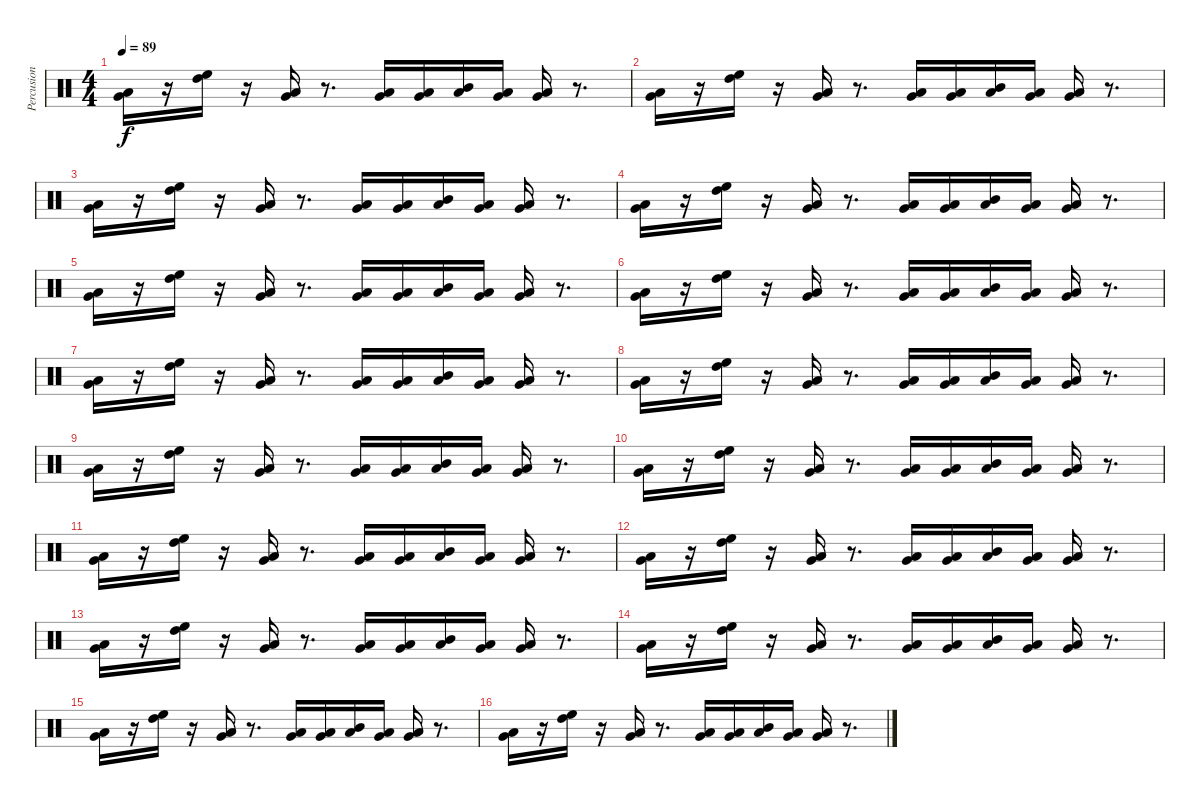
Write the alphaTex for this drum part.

\track ("Percusion" "Percusion") {instrument percussion}
\staff {score}
\articulation defaults
\ts (4 4)
\tempo 89
\clef neutral
\ks c
("Very Low Tom (hit)" "Low Floor Tom (hit)").16{dy f} r.16 ("High Floor Tom (hit)" "High Tom (hit)").16 r.16 ("Very Low Tom (hit)" "Low Floor Tom (hit)").16 r.8{d} ("Very Low Tom (hit)" "Low Floor Tom (hit)").16 ("Very Low Tom (hit)" "Low Floor Tom (hit)").16 ("Mid Tom (hit)" "Low Floor Tom (hit)").16 ("Very Low Tom (hit)" "Low Floor Tom (hit)").16 ("Very Low Tom (hit)" "Low Floor Tom (hit)").16 r.8{d} |
("Very Low Tom (hit)" "Low Floor Tom (hit)").16 r.16 ("High Floor Tom (hit)" "High Tom (hit)").16 r.16 ("Very Low Tom (hit)" "Low Floor Tom (hit)").16 r.8{d} ("Very Low Tom (hit)" "Low Floor Tom (hit)").16 ("Very Low Tom (hit)" "Low Floor Tom (hit)").16 ("Mid Tom (hit)" "Low Floor Tom (hit)").16 ("Very Low Tom (hit)" "Low Floor Tom (hit)").16 ("Very Low Tom (hit)" "Low Floor Tom (hit)").16 r.8{d} |
("Very Low Tom (hit)" "Low Floor Tom (hit)").16 r.16 ("High Floor Tom (hit)" "High Tom (hit)").16 r.16 ("Very Low Tom (hit)" "Low Floor Tom (hit)").16 r.8{d} ("Very Low Tom (hit)" "Low Floor Tom (hit)").16 ("Very Low Tom (hit)" "Low Floor Tom (hit)").16 ("Mid Tom (hit)" "Low Floor Tom (hit)").16 ("Very Low Tom (hit)" "Low Floor Tom (hit)").16 ("Very Low Tom (hit)" "Low Floor Tom (hit)").16 r.8{d} |
("Very Low Tom (hit)" "Low Floor Tom (hit)").16 r.16 ("High Floor Tom (hit)" "High Tom (hit)").16 r.16 ("Very Low Tom (hit)" "Low Floor Tom (hit)").16 r.8{d} ("Very Low Tom (hit)" "Low Floor Tom (hit)").16 ("Very Low Tom (hit)" "Low Floor Tom (hit)").16 ("Mid Tom (hit)" "Low Floor Tom (hit)").16 ("Very Low Tom (hit)" "Low Floor Tom (hit)").16 ("Very Low Tom (hit)" "Low Floor Tom (hit)").16 r.8{d} |
("Very Low Tom (hit)" "Low Floor Tom (hit)").16 r.16 ("High Floor Tom (hit)" "High Tom (hit)").16 r.16 ("Very Low Tom (hit)" "Low Floor Tom (hit)").16 r.8{d} ("Very Low Tom (hit)" "Low Floor Tom (hit)").16 ("Very Low Tom (hit)" "Low Floor Tom (hit)").16 ("Mid Tom (hit)" "Low Floor Tom (hit)").16 ("Very Low Tom (hit)" "Low Floor Tom (hit)").16 ("Very Low Tom (hit)" "Low Floor Tom (hit)").16 r.8{d} |
("Very Low Tom (hit)" "Low Floor Tom (hit)").16 r.16 ("High Floor Tom (hit)" "High Tom (hit)").16 r.16 ("Very Low Tom (hit)" "Low Floor Tom (hit)").16 r.8{d} ("Very Low Tom (hit)" "Low Floor Tom (hit)").16 ("Very Low Tom (hit)" "Low Floor Tom (hit)").16 ("Mid Tom (hit)" "Low Floor Tom (hit)").16 ("Very Low Tom (hit)" "Low Floor Tom (hit)").16 ("Very Low Tom (hit)" "Low Floor Tom (hit)").16 r.8{d} |
("Very Low Tom (hit)" "Low Floor Tom (hit)").16 r.16 ("High Floor Tom (hit)" "High Tom (hit)").16 r.16 ("Very Low Tom (hit)" "Low Floor Tom (hit)").16 r.8{d} ("Very Low Tom (hit)" "Low Floor Tom (hit)").16 ("Very Low Tom (hit)" "Low Floor Tom (hit)").16 ("Mid Tom (hit)" "Low Floor Tom (hit)").16 ("Very Low Tom (hit)" "Low Floor Tom (hit)").16 ("Very Low Tom (hit)" "Low Floor Tom (hit)").16 r.8{d} |
("Very Low Tom (hit)" "Low Floor Tom (hit)").16 r.16 ("High Floor Tom (hit)" "High Tom (hit)").16 r.16 ("Very Low Tom (hit)" "Low Floor Tom (hit)").16 r.8{d} ("Very Low Tom (hit)" "Low Floor Tom (hit)").16 ("Very Low Tom (hit)" "Low Floor Tom (hit)").16 ("Mid Tom (hit)" "Low Floor Tom (hit)").16 ("Very Low Tom (hit)" "Low Floor Tom (hit)").16 ("Very Low Tom (hit)" "Low Floor Tom (hit)").16 r.8{d} |
("Very Low Tom (hit)" "Low Floor Tom (hit)").16 r.16 ("High Floor Tom (hit)" "High Tom (hit)").16 r.16 ("Very Low Tom (hit)" "Low Floor Tom (hit)").16 r.8{d} ("Very Low Tom (hit)" "Low Floor Tom (hit)").16 ("Very Low Tom (hit)" "Low Floor Tom (hit)").16 ("Mid Tom (hit)" "Low Floor Tom (hit)").16 ("Very Low Tom (hit)" "Low Floor Tom (hit)").16 ("Very Low Tom (hit)" "Low Floor Tom (hit)").16 r.8{d} |
("Very Low Tom (hit)" "Low Floor Tom (hit)").16 r.16 ("High Floor Tom (hit)" "High Tom (hit)").16 r.16 ("Very Low Tom (hit)" "Low Floor Tom (hit)").16 r.8{d} ("Very Low Tom (hit)" "Low Floor Tom (hit)").16 ("Very Low Tom (hit)" "Low Floor Tom (hit)").16 ("Mid Tom (hit)" "Low Floor Tom (hit)").16 ("Very Low Tom (hit)" "Low Floor Tom (hit)").16 ("Very Low Tom (hit)" "Low Floor Tom (hit)").16 r.8{d} |
("Very Low Tom (hit)" "Low Floor Tom (hit)").16 r.16 ("High Floor Tom (hit)" "High Tom (hit)").16 r.16 ("Very Low Tom (hit)" "Low Floor Tom (hit)").16 r.8{d} ("Very Low Tom (hit)" "Low Floor Tom (hit)").16 ("Very Low Tom (hit)" "Low Floor Tom (hit)").16 ("Mid Tom (hit)" "Low Floor Tom (hit)").16 ("Very Low Tom (hit)" "Low Floor Tom (hit)").16 ("Very Low Tom (hit)" "Low Floor Tom (hit)").16 r.8{d} |
("Very Low Tom (hit)" "Low Floor Tom (hit)").16 r.16 ("High Floor Tom (hit)" "High Tom (hit)").16 r.16 ("Very Low Tom (hit)" "Low Floor Tom (hit)").16 r.8{d} ("Very Low Tom (hit)" "Low Floor Tom (hit)").16 ("Very Low Tom (hit)" "Low Floor Tom (hit)").16 ("Mid Tom (hit)" "Low Floor Tom (hit)").16 ("Very Low Tom (hit)" "Low Floor Tom (hit)").16 ("Very Low Tom (hit)" "Low Floor Tom (hit)").16 r.8{d} |
("Very Low Tom (hit)" "Low Floor Tom (hit)").16 r.16 ("High Floor Tom (hit)" "High Tom (hit)").16 r.16 ("Very Low Tom (hit)" "Low Floor Tom (hit)").16 r.8{d} ("Very Low Tom (hit)" "Low Floor Tom (hit)").16 ("Very Low Tom (hit)" "Low Floor Tom (hit)").16 ("Mid Tom (hit)" "Low Floor Tom (hit)").16 ("Very Low Tom (hit)" "Low Floor Tom (hit)").16 ("Very Low Tom (hit)" "Low Floor Tom (hit)").16 r.8{d} |
("Very Low Tom (hit)" "Low Floor Tom (hit)").16 r.16 ("High Floor Tom (hit)" "High Tom (hit)").16 r.16 ("Very Low Tom (hit)" "Low Floor Tom (hit)").16 r.8{d} ("Very Low Tom (hit)" "Low Floor Tom (hit)").16 ("Very Low Tom (hit)" "Low Floor Tom (hit)").16 ("Mid Tom (hit)" "Low Floor Tom (hit)").16 ("Very Low Tom (hit)" "Low Floor Tom (hit)").16 ("Very Low Tom (hit)" "Low Floor Tom (hit)").16 r.8{d} |
("Very Low Tom (hit)" "Low Floor Tom (hit)").16 r.16 ("High Floor Tom (hit)" "High Tom (hit)").16 r.16 ("Very Low Tom (hit)" "Low Floor Tom (hit)").16 r.8{d} ("Very Low Tom (hit)" "Low Floor Tom (hit)").16 ("Very Low Tom (hit)" "Low Floor Tom (hit)").16 ("Mid Tom (hit)" "Low Floor Tom (hit)").16 ("Very Low Tom (hit)" "Low Floor Tom (hit)").16 ("Very Low Tom (hit)" "Low Floor Tom (hit)").16 r.8{d} |
("Very Low Tom (hit)" "Low Floor Tom (hit)").16 r.16 ("High Floor Tom (hit)" "High Tom (hit)").16 r.16 ("Very Low Tom (hit)" "Low Floor Tom (hit)").16 r.8{d} ("Very Low Tom (hit)" "Low Floor Tom (hit)").16 ("Very Low Tom (hit)" "Low Floor Tom (hit)").16 ("Mid Tom (hit)" "Low Floor Tom (hit)").16 ("Very Low Tom (hit)" "Low Floor Tom (hit)").16 ("Very Low Tom (hit)" "Low Floor Tom (hit)").16 r.8{d}
